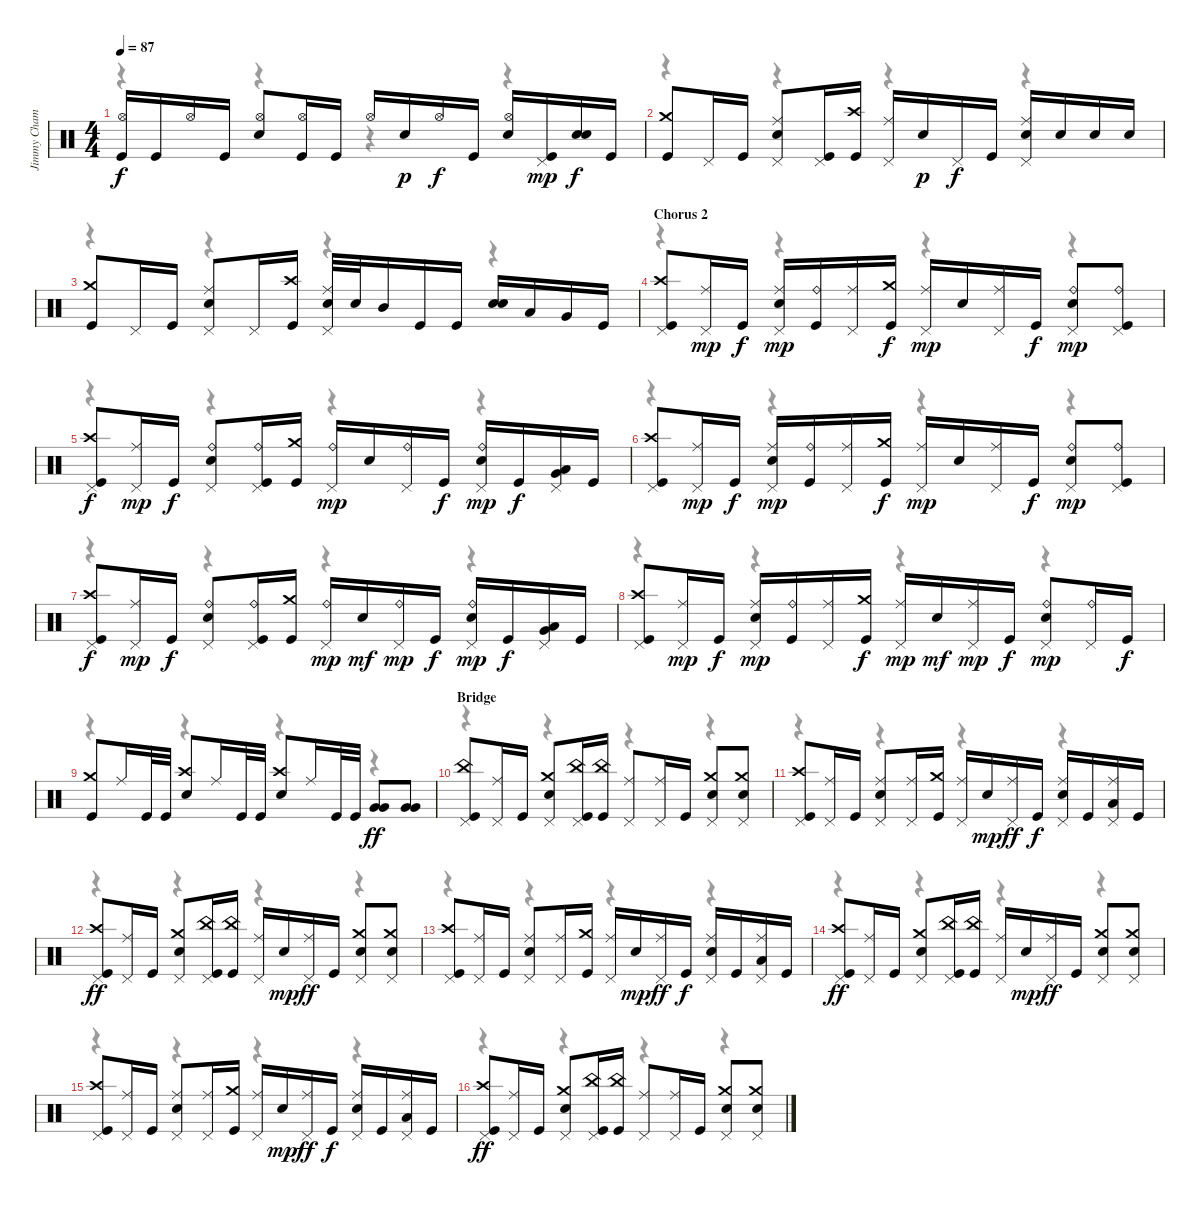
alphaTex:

\track ("Jimmy Chamberlin - Drums" "Jimmy Cham") {instrument percussion}
\staff {score}
\articulation defaults
\voice
\ts (4 4)
\tempo 87
\clef neutral
\ks c
("Hi-Hat (open)" "Kick (hit)").16{dy f} "Kick (hit)".16 "Hi-Hat (open)".16 "Kick (hit)".16 ("Hi-Hat (open)" "Snare (hit) 2").8 ("Hi-Hat (open)" "Kick (hit)").16 "Kick (hit)".16 "Hi-Hat (open)".16 "Snare (hit) 2".16{dy p} "Hi-Hat (open)".16{dy f} "Kick (hit)".16 ("Hi-Hat (open)" "Snare (hit) 2").16 ("Pedal Hi-Hat (hit)" "Kick (hit)").16{dy mp} ("Snare (hit) 2" "Snare (hit) 2").16{dy f} "Kick (hit)".16 |
("Crash medium (hit)" "Kick (hit)").8 "Pedal Hi-Hat (hit)".16 "Kick (hit)".16 ("Ride (middle)" "Pedal Hi-Hat (hit)" "Snare (hit) 2").8 ("Pedal Hi-Hat (hit)" "Kick (hit)").16 ("Crash high (hit)" "Kick (hit)").16 ("Ride (middle)" "Pedal Hi-Hat (hit)").16 "Snare (hit) 2".16{dy p} "Pedal Hi-Hat (hit)".16{dy f} "Kick (hit)".16 ("Ride (middle)" "Pedal Hi-Hat (hit)" "Snare (hit) 2").16 "Snare (hit) 2".16 "Snare (hit) 2".16 "Snare (hit) 2".16 |
("Crash medium (hit)" "Kick (hit)").8 "Pedal Hi-Hat (hit)".16 "Kick (hit)".16 ("Ride (middle)" "Pedal Hi-Hat (hit)" "Snare (hit) 2").8 "Pedal Hi-Hat (hit)".16 ("Crash high (hit)" "Kick (hit)").16 ("Ride (middle)" "Pedal Hi-Hat (hit)" "Snare (hit) 2").32 "Snare (hit) 2".32 "Mid Tom (hit)".16 "Kick (hit)".16 "Kick (hit)".16 ("Snare (hit) 2" "Snare (hit) 2").16 "Low Tom (hit)".16 "Very Low Tom (hit)".16 "Kick (hit)".16 |
\section ("" "Chorus 2")
("Crash high (hit)" "Pedal Hi-Hat (hit)" "Kick (hit)").8 ("Ride (middle)" "Pedal Hi-Hat (hit)").16{dy mp} "Kick (hit)".16{dy f} ("Ride (middle)" "Pedal Hi-Hat (hit)" "Snare (hit) 2").16{dy mp} ("Ride (bell)" "Kick (hit)").16 ("Ride (middle)" "Pedal Hi-Hat (hit)").16 ("Crash medium (hit)" "Kick (hit)").16{dy f} ("Ride (middle)" "Pedal Hi-Hat (hit)").16{dy mp} "Snare (hit) 2".16 ("Ride (middle)" "Pedal Hi-Hat (hit)").16 "Kick (hit)".16{dy f} ("Ride (bell)" "Pedal Hi-Hat (hit)" "Snare (hit) 2").8{dy mp} ("Ride (bell)" "Pedal Hi-Hat (hit)" "Kick (hit)").8 |
("Crash high (hit)" "Pedal Hi-Hat (hit)" "Kick (hit)").8{dy f} ("Ride (middle)" "Pedal Hi-Hat (hit)").16{dy mp} "Kick (hit)".16{dy f} ("Ride (bell)" "Pedal Hi-Hat (hit)" "Snare (hit) 2").8 ("Ride (bell)" "Pedal Hi-Hat (hit)" "Kick (hit)").16 ("Crash medium (hit)" "Kick (hit)").16 ("Ride (bell)" "Pedal Hi-Hat (hit)").16{dy mp} "Snare (hit) 2".16 ("Ride (bell)" "Pedal Hi-Hat (hit)").16 "Kick (hit)".16{dy f} ("Ride (bell)" "Pedal Hi-Hat (hit)" "Snare (hit) 2").16{dy mp} "Kick (hit)".16{dy f} ("Pedal Hi-Hat (hit)" "Low Tom (hit)" "Very Low Tom (hit)").16 "Kick (hit)".16 |
("Crash high (hit)" "Pedal Hi-Hat (hit)" "Kick (hit)").8 ("Ride (middle)" "Pedal Hi-Hat (hit)").16{dy mp} "Kick (hit)".16{dy f} ("Ride (middle)" "Pedal Hi-Hat (hit)" "Snare (hit) 2").16{dy mp} ("Ride (bell)" "Kick (hit)").16 ("Ride (middle)" "Pedal Hi-Hat (hit)").16 ("Crash medium (hit)" "Kick (hit)").16{dy f} ("Ride (middle)" "Pedal Hi-Hat (hit)").16{dy mp} "Snare (hit) 2".16 ("Ride (middle)" "Pedal Hi-Hat (hit)").16 "Kick (hit)".16{dy f} ("Ride (bell)" "Pedal Hi-Hat (hit)" "Snare (hit) 2").8{dy mp} ("Ride (bell)" "Pedal Hi-Hat (hit)" "Kick (hit)").8 |
("Crash high (hit)" "Pedal Hi-Hat (hit)" "Kick (hit)").8{dy f} ("Ride (middle)" "Pedal Hi-Hat (hit)").16{dy mp} "Kick (hit)".16{dy f} ("Ride (bell)" "Pedal Hi-Hat (hit)" "Snare (hit) 2").8 ("Ride (bell)" "Pedal Hi-Hat (hit)" "Kick (hit)").16 ("Crash medium (hit)" "Kick (hit)").16 ("Ride (bell)" "Pedal Hi-Hat (hit)").16{dy mp} "Snare (hit) 2".16{dy mf} ("Ride (bell)" "Pedal Hi-Hat (hit)").16{dy mp} "Kick (hit)".16{dy f} ("Ride (bell)" "Pedal Hi-Hat (hit)" "Snare (hit) 2").16{dy mp} "Kick (hit)".16{dy f} ("Pedal Hi-Hat (hit)" "Low Tom (hit)" "Very Low Tom (hit)").16 "Kick (hit)".16 |
("Crash high (hit)" "Pedal Hi-Hat (hit)" "Kick (hit)").8 ("Ride (middle)" "Pedal Hi-Hat (hit)").16{dy mp} "Kick (hit)".16{dy f} ("Ride (middle)" "Pedal Hi-Hat (hit)" "Snare (hit) 2").16{dy mp} ("Ride (bell)" "Kick (hit)").16 ("Ride (middle)" "Pedal Hi-Hat (hit)").16 ("Crash medium (hit)" "Kick (hit)").16{dy f} ("Ride (middle)" "Pedal Hi-Hat (hit)").16{dy mp} "Snare (hit) 2".16{dy mf} ("Ride (middle)" "Pedal Hi-Hat (hit)").16{dy mp} "Kick (hit)".16{dy f} ("Ride (bell)" "Pedal Hi-Hat (hit)" "Snare (hit) 2").8{dy mp} ("Ride (bell)" "Pedal Hi-Hat (hit)").16 "Kick (hit)".16{dy f} |
("Crash medium (hit)" "Kick (hit)").8 "Ride (middle)".16 "Kick (hit)".32 "Kick (hit)".32 ("Crash high (hit)" "Snare (hit) 2").8 "Ride (middle)".16 "Kick (hit)".32 "Kick (hit)".32 ("Crash high (hit)" "Snare (hit) 2").8 "Ride (middle)".16 "Kick (hit)".32 "Kick (hit)".32 ("Very Low Tom (hit)" "Very Low Tom (hit)").8{dy ff} ("Very Low Tom (hit)" "Very Low Tom (hit)").8 |
\section ("" "Bridge")
("China (hit)" "Pedal Hi-Hat (hit)" "Kick (hit)").8 ("Ride (middle)" "Pedal Hi-Hat (hit)").16 "Kick (hit)".16 ("Crash medium (hit)" "Pedal Hi-Hat (hit)" "Snare (hit) 2").8 ("China (hit)" "Pedal Hi-Hat (hit)" "Kick (hit)").16 ("China (hit)" "Kick (hit)").16 ("Ride (middle)" "Pedal Hi-Hat (hit)").8 ("Ride (middle)" "Pedal Hi-Hat (hit)").16 "Kick (hit)".16 ("Crash medium (hit)" "Pedal Hi-Hat (hit)" "Snare (hit) 2").8 ("Crash medium (hit)" "Pedal Hi-Hat (hit)" "Snare (hit) 2").8 |
("Crash high (hit)" "Pedal Hi-Hat (hit)" "Kick (hit)").8 ("Ride (middle)" "Pedal Hi-Hat (hit)").16 "Kick (hit)".16 ("Ride (middle)" "Pedal Hi-Hat (hit)" "Snare (hit) 2").8 ("Ride (middle)" "Pedal Hi-Hat (hit)").16 ("Crash medium (hit)" "Kick (hit)").16 ("Ride (middle)" "Pedal Hi-Hat (hit)").16 "Snare (hit) 2".16{dy mp} ("Ride (middle)" "Pedal Hi-Hat (hit)").16{dy ff} "Kick (hit)".16{dy f} ("Ride (middle)" "Pedal Hi-Hat (hit)" "Snare (hit) 2").16 "Kick (hit)".16 ("Ride (middle)" "Pedal Hi-Hat (hit)" "Low Tom (hit)").16 "Kick (hit)".16 |
("Crash high (hit)" "Pedal Hi-Hat (hit)" "Kick (hit)").8{dy ff} ("Ride (middle)" "Pedal Hi-Hat (hit)").16 "Kick (hit)".16 ("Crash medium (hit)" "Pedal Hi-Hat (hit)" "Snare (hit) 2").8 ("China (hit)" "Pedal Hi-Hat (hit)" "Kick (hit)").16 ("China (hit)" "Kick (hit)").16 ("Ride (middle)" "Pedal Hi-Hat (hit)").16 "Snare (hit) 2".16{dy mp} ("Ride (middle)" "Pedal Hi-Hat (hit)").16{dy ff} "Kick (hit)".16 ("Crash medium (hit)" "Pedal Hi-Hat (hit)" "Snare (hit) 2").8 ("Crash medium (hit)" "Pedal Hi-Hat (hit)" "Snare (hit) 2").8 |
("Crash high (hit)" "Pedal Hi-Hat (hit)" "Kick (hit)").8 ("Ride (middle)" "Pedal Hi-Hat (hit)").16 "Kick (hit)".16 ("Ride (middle)" "Pedal Hi-Hat (hit)" "Snare (hit) 2").8 ("Ride (middle)" "Pedal Hi-Hat (hit)").16 ("Crash medium (hit)" "Kick (hit)").16 ("Ride (middle)" "Pedal Hi-Hat (hit)").16 "Snare (hit) 2".16{dy mp} ("Ride (middle)" "Pedal Hi-Hat (hit)").16{dy ff} "Kick (hit)".16{dy f} ("Ride (middle)" "Pedal Hi-Hat (hit)" "Snare (hit) 2").16 "Kick (hit)".16 ("Ride (middle)" "Pedal Hi-Hat (hit)" "Low Tom (hit)").16 "Kick (hit)".16 |
("Crash high (hit)" "Pedal Hi-Hat (hit)" "Kick (hit)").8{dy ff} ("Ride (middle)" "Pedal Hi-Hat (hit)").16 "Kick (hit)".16 ("Crash medium (hit)" "Pedal Hi-Hat (hit)" "Snare (hit) 2").8 ("China (hit)" "Pedal Hi-Hat (hit)" "Kick (hit)").16 ("China (hit)" "Kick (hit)").16 ("Ride (middle)" "Pedal Hi-Hat (hit)").16 "Snare (hit) 2".16{dy mp} ("Ride (middle)" "Pedal Hi-Hat (hit)").16{dy ff} "Kick (hit)".16 ("Crash medium (hit)" "Pedal Hi-Hat (hit)" "Snare (hit) 2").8 ("Crash medium (hit)" "Pedal Hi-Hat (hit)" "Snare (hit) 2").8 |
("Crash high (hit)" "Pedal Hi-Hat (hit)" "Kick (hit)").8 ("Ride (middle)" "Pedal Hi-Hat (hit)").16 "Kick (hit)".16 ("Ride (middle)" "Pedal Hi-Hat (hit)" "Snare (hit) 2").8 ("Ride (middle)" "Pedal Hi-Hat (hit)").16 ("Crash medium (hit)" "Kick (hit)").16 ("Ride (middle)" "Pedal Hi-Hat (hit)").16 "Snare (hit) 2".16{dy mp} ("Ride (middle)" "Pedal Hi-Hat (hit)").16{dy ff} "Kick (hit)".16{dy f} ("Ride (middle)" "Pedal Hi-Hat (hit)" "Snare (hit) 2").16 "Kick (hit)".16 ("Ride (middle)" "Pedal Hi-Hat (hit)" "Low Tom (hit)").16 "Kick (hit)".16 |
("Crash high (hit)" "Pedal Hi-Hat (hit)" "Kick (hit)").8{dy ff} ("Ride (middle)" "Pedal Hi-Hat (hit)").16 "Kick (hit)".16 ("Crash medium (hit)" "Pedal Hi-Hat (hit)" "Snare (hit) 2").8 ("China (hit)" "Pedal Hi-Hat (hit)" "Kick (hit)").16 ("China (hit)" "Kick (hit)").16 ("Ride (middle)" "Pedal Hi-Hat (hit)").8 ("Ride (middle)" "Pedal Hi-Hat (hit)").16 "Kick (hit)".16 ("Crash medium (hit)" "Pedal Hi-Hat (hit)" "Snare (hit) 2").8 ("Crash medium (hit)" "Pedal Hi-Hat (hit)" "Snare (hit) 2").8
\voice
\clef neutral
\ottava regular
\simile none
\ks c
r.4{dy f} r.4 r.4 r.4 |
r.4 r.4 r.4 r.4 |
r.4 r.4 r.4 r.4 |
r.4 r.4 r.4 r.4 |
r.4 r.4 r.4 r.4 |
r.4 r.4 r.4 r.4 |
r.4 r.4 r.4 r.4 |
r.4 r.4 r.4 r.4 |
r.4 r.4 r.4 r.4 |
r.4 r.4 r.4 r.4 |
r.4 r.4 r.4 r.4 |
r.4 r.4 r.4 r.4 |
r.4 r.4 r.4 r.4 |
r.4 r.4 r.4 r.4 |
r.4 r.4 r.4 r.4 |
r.4 r.4 r.4 r.4
